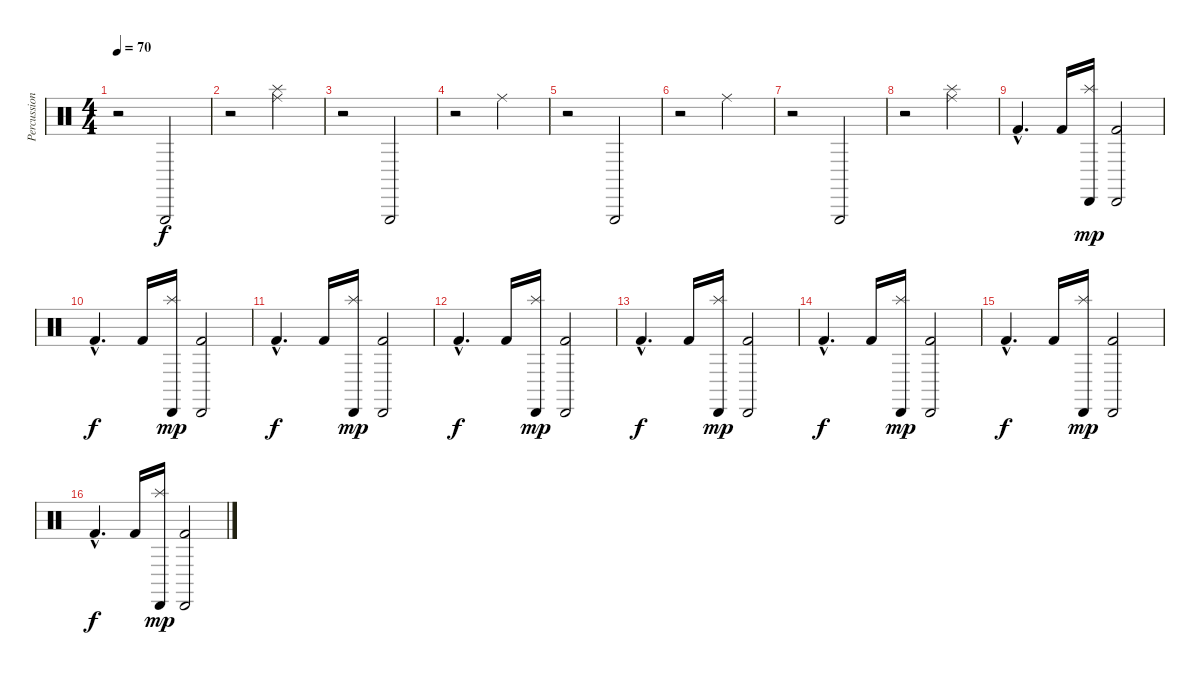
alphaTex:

\track ("Percussion" "Percussion") {instrument percussion}
\staff {score}
\articulation defaults
\ts (4 4)
\tempo 70
\clef neutral
\ks c
r.2{dy f} "Triangle (hit)".2 |
r.2 ("Ride (middle)" "Splash (hit)").2 |
r.2 "Triangle (hit)".2 |
r.2 "Ride (middle)".2 |
r.2 "Triangle (hit)".2 |
r.2 "Ride (middle)".2 |
r.2 "Triangle (hit)".2 |
r.2 ("Ride (middle)" "Splash (hit)").2 |
"Kick (hit) 2"{hac}.4{d} "Kick (hit) 2".16 ("Splash (hit)" "Cabasa (hit)").16{dy mp} ("Kick (hit) 2" "Cabasa (hit)").2 |
"Kick (hit) 2"{hac}.4{d dy f} "Kick (hit) 2".16 ("Splash (hit)" "Cabasa (hit)").16{dy mp} ("Kick (hit) 2" "Cabasa (hit)").2 |
"Kick (hit) 2"{hac}.4{d dy f} "Kick (hit) 2".16 ("Splash (hit)" "Cabasa (hit)").16{dy mp} ("Kick (hit) 2" "Cabasa (hit)").2 |
"Kick (hit) 2"{hac}.4{d dy f} "Kick (hit) 2".16 ("Splash (hit)" "Cabasa (hit)").16{dy mp} ("Kick (hit) 2" "Cabasa (hit)").2 |
"Kick (hit) 2"{hac}.4{d dy f} "Kick (hit) 2".16 ("Splash (hit)" "Cabasa (hit)").16{dy mp} ("Kick (hit) 2" "Cabasa (hit)").2 |
"Kick (hit) 2"{hac}.4{d dy f} "Kick (hit) 2".16 ("Splash (hit)" "Cabasa (hit)").16{dy mp} ("Kick (hit) 2" "Cabasa (hit)").2 |
"Kick (hit) 2"{hac}.4{d dy f} "Kick (hit) 2".16 ("Splash (hit)" "Cabasa (hit)").16{dy mp} ("Kick (hit) 2" "Cabasa (hit)").2 |
"Kick (hit) 2"{hac}.4{d dy f} "Kick (hit) 2".16 ("Splash (hit)" "Cabasa (hit)").16{dy mp} ("Kick (hit) 2" "Cabasa (hit)").2
